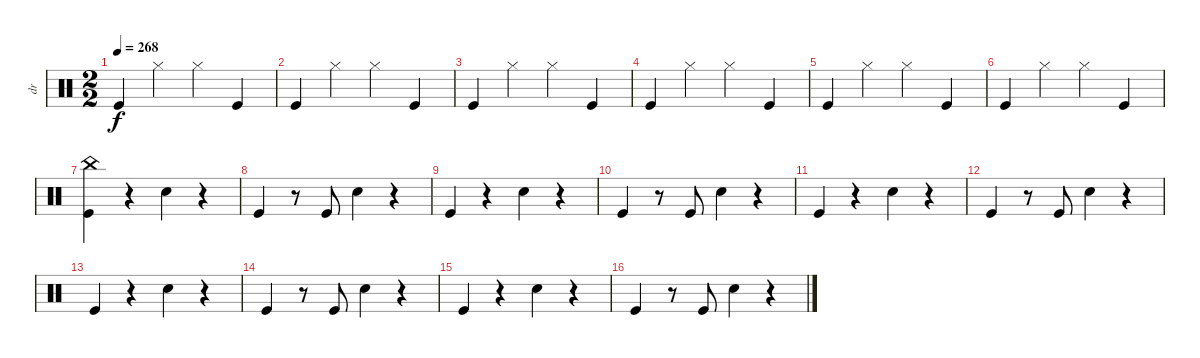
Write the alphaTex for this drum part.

\track ("dr" "dr") {instrument percussion}
\staff {score}
\articulation defaults
\ts (2 2)
\tempo 268
\clef neutral
\ks c "Kick (hit)".4{dy f} "Hi-Hat (closed)".4 "Hi-Hat (closed)".4 "Kick (hit)".4
|
"Kick (hit)".4 "Hi-Hat (closed)".4 "Hi-Hat (closed)".4 "Kick (hit)".4 |
"Kick (hit)".4 "Hi-Hat (closed)".4 "Hi-Hat (closed)".4 "Kick (hit)".4 |
"Kick (hit)".4 "Hi-Hat (closed)".4 "Hi-Hat (closed)".4 "Kick (hit)".4 |
"Kick (hit)".4 "Hi-Hat (closed)".4 "Hi-Hat (closed)".4 "Kick (hit)".4 |
"Kick (hit)".4 "Hi-Hat (closed)".4 "Hi-Hat (closed)".4 "Kick (hit)".4 |
("China (hit)" "Kick (hit)").4 r.4 "Snare (hit) 2".4 r.4 |
"Kick (hit)".4 r.8 "Kick (hit)".8 "Snare (hit) 2".4 r.4 |
"Kick (hit)".4 r.4 "Snare (hit) 2".4 r.4 |
"Kick (hit)".4 r.8 "Kick (hit)".8 "Snare (hit) 2".4 r.4 |
"Kick (hit)".4 r.4 "Snare (hit) 2".4 r.4 |
"Kick (hit)".4 r.8 "Kick (hit)".8 "Snare (hit) 2".4 r.4 |
"Kick (hit)".4 r.4 "Snare (hit) 2".4 r.4 |
"Kick (hit)".4 r.8 "Kick (hit)".8 "Snare (hit) 2".4 r.4 |
"Kick (hit)".4 r.4 "Snare (hit) 2".4 r.4 |
"Kick (hit)".4 r.8 "Kick (hit)".8 "Snare (hit) 2".4 r.4
